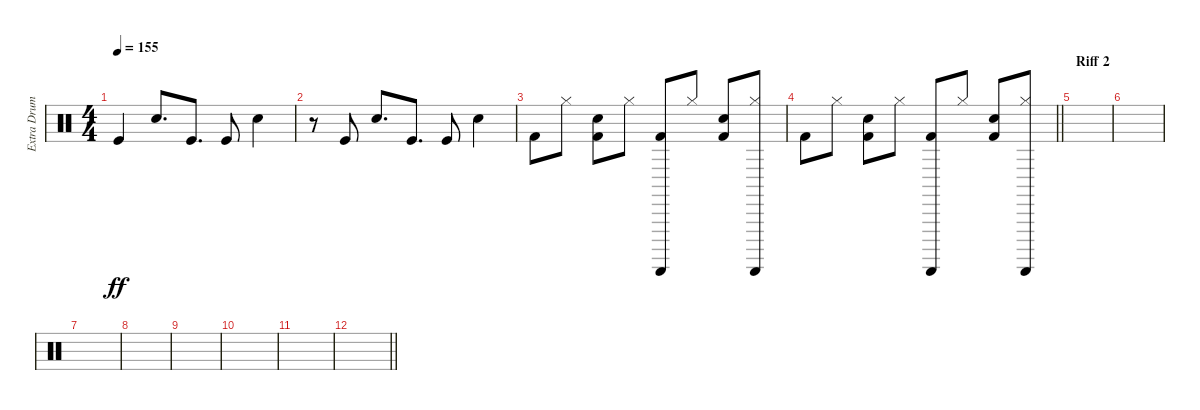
\track ("Extra Drums" "Extra Drum") {instrument percussion}
\staff {score}
\articulation defaults
\ts (4 4)
\tempo 155
\clef neutral
\ks c "Kick (hit)".4{dy ff} "Electric Snare (hit)".8{d} "Kick (hit)".8{d} "Kick (hit)".8 "Electric Snare (hit)".4
|
r.8 "Kick (hit)".8 "Electric Snare (hit)".8{d} "Kick (hit)".8{d} "Kick (hit)".8 "Electric Snare (hit)".4 |
"Kick (hit) 2".8 "Hi-Hat (closed)".8 ("Kick (hit) 2" "Electric Snare (hit)").8 "Hi-Hat (closed)".8 ("Kick (hit) 2" "Guiro (scrap-return)").8 "Hi-Hat (closed)".8 ("Kick (hit) 2" "Electric Snare (hit)").8 ("Hi-Hat (closed)" "Guiro (scrap-return)").8 |
\barLineRight lightlight "Kick (hit) 2".8 "Hi-Hat (closed)".8
("Kick (hit) 2" "Electric Snare (hit)").8 "Hi-Hat (closed)".8 ("Kick (hit) 2" "Guiro (scrap-return)").8 "Hi-Hat (closed)".8 ("Kick (hit) 2" "Electric Snare (hit)").8 ("Hi-Hat (closed)" "Guiro (scrap-return)").8 |
\section ("" "Riff 2")
|
|
|
|
|
|
|
\barLineRight lightlight
